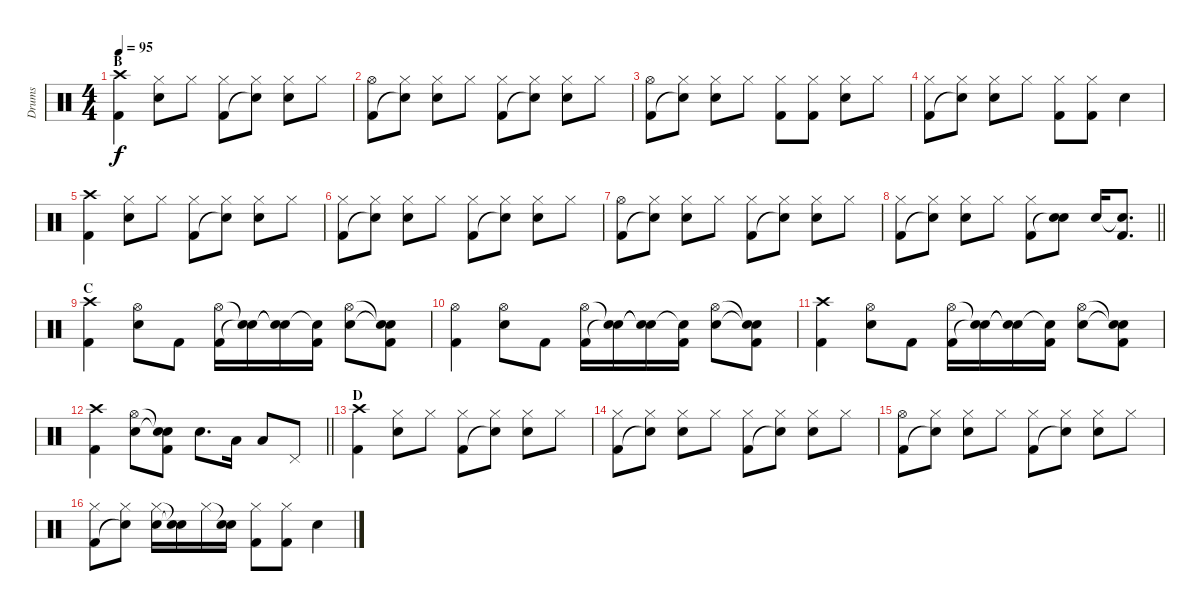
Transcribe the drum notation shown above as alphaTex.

\track ("Drums" "Drums") {instrument percussion}
\staff {score}
\articulation defaults
\ts (4 4)
\section ("" "B")
\tempo 95
\clef neutral
\ks c
("Crash high (hit)" "Kick (hit) 2").4{dy f} ("Hi-Hat (closed)" "Snare (hit) 2").8 "Hi-Hat (closed)".8 ("Hi-Hat (closed)" "Kick (hit) 2").8 ("Hi-Hat (closed)" "Snare (hit)"{t}).8 ("Hi-Hat (closed)" "Snare (hit) 2").8 "Hi-Hat (closed)".8 |
("Hi-Hat (open)" "Kick (hit) 2").8 ("Hi-Hat (closed)" "Snare (hit)"{t}).8 ("Hi-Hat (closed)" "Snare (hit) 2").8 "Hi-Hat (closed)".8 ("Hi-Hat (closed)" "Kick (hit) 2").8 ("Hi-Hat (closed)" "Snare (hit)"{t}).8 ("Hi-Hat (closed)" "Snare (hit) 2").8 "Hi-Hat (closed)".8 |
("Hi-Hat (open)" "Kick (hit) 2").8 ("Hi-Hat (closed)" "Snare (hit)"{t}).8 ("Hi-Hat (closed)" "Snare (hit) 2").8 "Hi-Hat (closed)".8 ("Hi-Hat (closed)" "Kick (hit) 2").8 ("Hi-Hat (closed)" "Kick (hit) 2").8 ("Hi-Hat (closed)" "Snare (hit) 2").8 "Hi-Hat (closed)".8 |
("Hi-Hat (closed)" "Kick (hit) 2").8 ("Hi-Hat (closed)" "Snare (hit)"{t}).8 ("Hi-Hat (closed)" "Snare (hit) 2").8 "Hi-Hat (closed)".8 ("Hi-Hat (closed)" "Kick (hit) 2").8 ("Hi-Hat (closed)" "Kick (hit) 2").8 "Snare (hit) 2".4 |
("Crash high (hit)" "Kick (hit) 2").4 ("Hi-Hat (closed)" "Snare (hit) 2").8 "Hi-Hat (closed)".8 ("Hi-Hat (closed)" "Kick (hit) 2").8 ("Hi-Hat (closed)" "Snare (hit)"{t}).8 ("Hi-Hat (closed)" "Snare (hit) 2").8 "Hi-Hat (closed)".8 |
("Hi-Hat (closed)" "Kick (hit) 2").8 ("Hi-Hat (closed)" "Snare (hit)"{t}).8 ("Hi-Hat (closed)" "Snare (hit) 2").8 "Hi-Hat (closed)".8 ("Hi-Hat (closed)" "Kick (hit) 2").8 ("Hi-Hat (closed)" "Snare (hit)"{t}).8 ("Hi-Hat (closed)" "Snare (hit) 2").8 "Hi-Hat (closed)".8 |
("Hi-Hat (open)" "Kick (hit) 2").8 ("Hi-Hat (closed)" "Snare (hit)"{t}).8 ("Hi-Hat (closed)" "Snare (hit) 2").8 "Hi-Hat (closed)".8 ("Hi-Hat (closed)" "Kick (hit) 2").8 ("Hi-Hat (closed)" "Snare (hit)"{t}).8 ("Hi-Hat (closed)" "Snare (hit) 2").8 "Hi-Hat (closed)".8 |
\barLineRight lightlight
("Hi-Hat (closed)" "Kick (hit) 2").8 ("Hi-Hat (closed)" "Snare (hit)"{t}).8 ("Hi-Hat (closed)" "Snare (hit) 2").8 "Hi-Hat (closed)".8 ("Hi-Hat (closed)" "Kick (hit) 2").8 ("Snare (hit) 2" "Snare (hit)"{t}).8 "Snare (hit) 2".16 ("Snare (hit)"{t} "Kick (hit) 2").8{d} |
\section ("" "C")
("Crash high (hit)" "Kick (hit) 2").4 ("Hi-Hat (open)" "Snare (hit) 2").8 "Kick (hit) 2".8 ("Hi-Hat (open)" "Kick (hit) 2").16 ("Snare (hit)"{t} "Snare (hit)"{t}).16 ("Snare (hit)"{t} "Snare (hit)"{t}).16 ("Snare (hit)"{t} "Kick (hit) 2").16 ("Hi-Hat (open)" "Snare (hit) 2").8 ("Snare (hit)"{t} "Snare (hit)"{t} "Kick (hit) 2").8 |
("Hi-Hat (open)" "Kick (hit) 2").4 ("Hi-Hat (open)" "Snare (hit) 2").8 "Kick (hit) 2".8 ("Hi-Hat (open)" "Kick (hit) 2").16 ("Snare (hit)"{t} "Snare (hit)"{t}).16 ("Snare (hit)"{t} "Snare (hit)"{t}).16 ("Snare (hit)"{t} "Kick (hit) 2").16 ("Hi-Hat (open)" "Snare (hit) 2").8 ("Snare (hit)"{t} "Snare (hit)"{t} "Kick (hit) 2").8 |
("Crash high (hit)" "Kick (hit) 2").4 ("Hi-Hat (open)" "Snare (hit) 2").8 "Kick (hit) 2".8 ("Hi-Hat (open)" "Kick (hit) 2").16 ("Snare (hit)"{t} "Snare (hit)"{t}).16 ("Snare (hit)"{t} "Snare (hit)"{t}).16 ("Snare (hit)"{t} "Kick (hit) 2").16 ("Hi-Hat (open)" "Snare (hit) 2").8 ("Snare (hit)"{t} "Snare (hit)"{t} "Kick (hit) 2").8 |
\barLineRight lightlight
("Crash high (hit)" "Kick (hit) 2").4 ("Hi-Hat (open)" "Snare (hit) 2").8 ("Snare (hit)"{t} "Snare (hit)"{t} "Kick (hit) 2").8 "Snare (hit) 2".8{d} "Low Tom (hit)".16 "Low Tom (hit)".8 "Pedal Hi-Hat (hit)".8 |
\section ("" "D")
("Crash high (hit)" "Kick (hit) 2").4 ("Hi-Hat (closed)" "Snare (hit) 2").8 "Hi-Hat (closed)".8 ("Hi-Hat (closed)" "Kick (hit) 2").8 ("Hi-Hat (closed)" "Snare (hit)"{t}).8 ("Hi-Hat (closed)" "Snare (hit) 2").8 "Hi-Hat (closed)".8 |
("Hi-Hat (closed)" "Kick (hit) 2").8 ("Hi-Hat (closed)" "Snare (hit)"{t}).8 ("Hi-Hat (closed)" "Snare (hit) 2").8 "Hi-Hat (closed)".8 ("Hi-Hat (closed)" "Kick (hit) 2").8 ("Hi-Hat (closed)" "Snare (hit)"{t}).8 ("Hi-Hat (closed)" "Snare (hit) 2").8 "Hi-Hat (closed)".8 |
("Hi-Hat (open)" "Kick (hit) 2").8 ("Hi-Hat (closed)" "Snare (hit)"{t}).8 ("Hi-Hat (closed)" "Snare (hit) 2").8 "Hi-Hat (closed)".8 ("Hi-Hat (closed)" "Kick (hit) 2").8 ("Hi-Hat (closed)" "Snare (hit)"{t}).8 ("Hi-Hat (closed)" "Snare (hit) 2").8 "Hi-Hat (closed)".8 |
("Hi-Hat (closed)" "Kick (hit) 2").8 ("Hi-Hat (closed)" "Snare (hit)"{t}).8 ("Hi-Hat (closed)" "Snare (hit) 2").16 ("Snare (hit)"{t} "Snare (hit)"{t}).16 "Hi-Hat (closed)".16 ("Snare (hit)"{t} "Snare (hit) 2").16 ("Hi-Hat (closed)" "Kick (hit) 2").8 ("Hi-Hat (closed)" "Kick (hit) 2").8 "Snare (hit) 2".4
